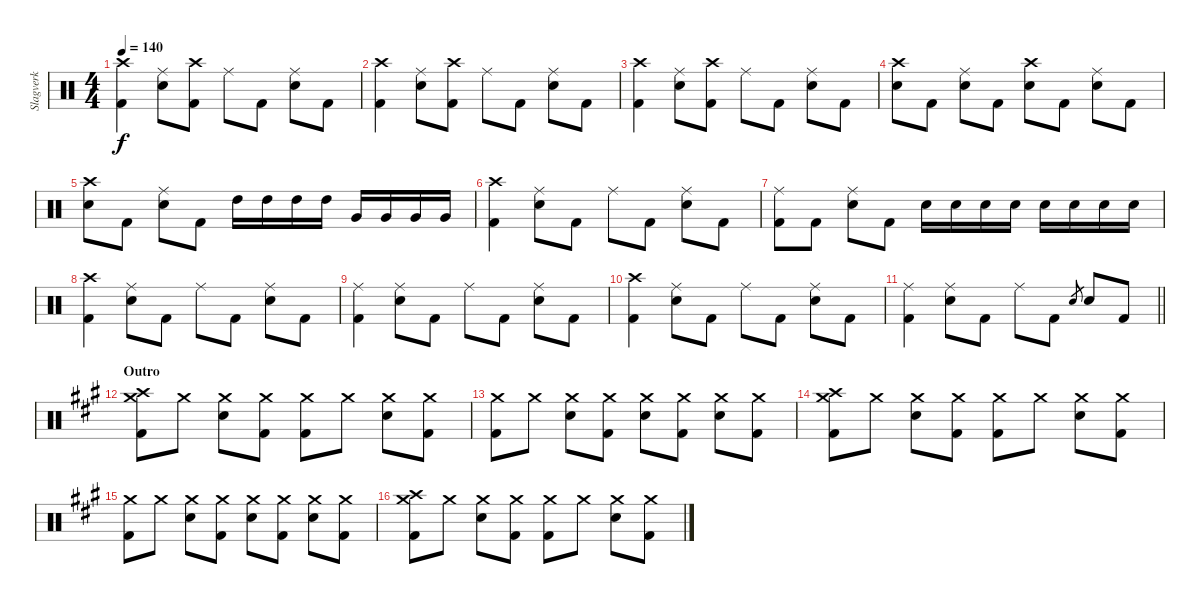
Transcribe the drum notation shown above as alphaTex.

\track ("Slagverk" "Slagverk") {instrument percussion}
\staff {score}
\articulation defaults
\ts (4 4)
\tempo 140
\clef neutral
\ks c
("Crash high (hit)" "Kick (hit) 2").4{dy f} ("Ride (middle)" "Electric Snare (hit)").8 ("Crash high (hit)" "Kick (hit) 2").8 "Ride (middle)".8 "Kick (hit) 2".8 ("Ride (middle)" "Electric Snare (hit)").8 "Kick (hit) 2".8 |
("Crash high (hit)" "Kick (hit) 2").4 ("Ride (middle)" "Electric Snare (hit)").8 ("Crash high (hit)" "Kick (hit) 2").8 "Ride (middle)".8 "Kick (hit) 2".8 ("Ride (middle)" "Electric Snare (hit)").8 "Kick (hit) 2".8 |
("Crash high (hit)" "Kick (hit) 2").4 ("Ride (middle)" "Electric Snare (hit)").8 ("Crash high (hit)" "Kick (hit) 2").8 "Ride (middle)".8 "Kick (hit) 2".8 ("Ride (middle)" "Electric Snare (hit)").8 "Kick (hit) 2".8 |
("Crash high (hit)" "Electric Snare (hit)").8 "Kick (hit) 2".8 ("Ride (middle)" "Electric Snare (hit)").8 "Kick (hit) 2".8 ("Crash high (hit)" "Electric Snare (hit)").8 "Kick (hit) 2".8 ("Ride (middle)" "Electric Snare (hit)").8 "Kick (hit) 2".8 |
("Crash high (hit)" "Electric Snare (hit)").8 "Kick (hit) 2".8 ("Ride (middle)" "Electric Snare (hit)").8 "Kick (hit) 2".8 "High Tom (hit)".16 "High Tom (hit)".16 "High Tom (hit)".16 "High Tom (hit)".16 "Very Low Tom (hit)".16 "Very Low Tom (hit)".16 "Very Low Tom (hit)".16 "Very Low Tom (hit)".16 |
("Crash high (hit)" "Kick (hit) 2").4 ("Ride (middle)" "Electric Snare (hit)").8 "Kick (hit) 2".8 "Ride (middle)".8 "Kick (hit) 2".8 ("Ride (middle)" "Electric Snare (hit)").8 "Kick (hit) 2".8 |
("Ride (middle)" "Kick (hit) 2").8 "Kick (hit) 2".8 ("Ride (middle)" "Electric Snare (hit)").8 "Kick (hit) 2".8 "Electric Snare (hit)".16 "Electric Snare (hit)".16 "Electric Snare (hit)".16 "Electric Snare (hit)".16 "Electric Snare (hit)".16 "Electric Snare (hit)".16 "Electric Snare (hit)".16 "Electric Snare (hit)".16 |
("Crash high (hit)" "Kick (hit) 2").4 ("Ride (middle)" "Electric Snare (hit)").8 "Kick (hit) 2".8 "Ride (middle)".8 "Kick (hit) 2".8 ("Ride (middle)" "Electric Snare (hit)").8 "Kick (hit) 2".8 |
("Ride (middle)" "Kick (hit) 2").4 ("Ride (middle)" "Electric Snare (hit)").8 "Kick (hit) 2".8 "Ride (middle)".8 "Kick (hit) 2".8 ("Ride (middle)" "Electric Snare (hit)").8 "Kick (hit) 2".8 |
("Crash high (hit)" "Kick (hit) 2").4 ("Ride (middle)" "Electric Snare (hit)").8 "Kick (hit) 2".8 "Ride (middle)".8 "Kick (hit) 2".8 ("Ride (middle)" "Electric Snare (hit)").8 "Kick (hit) 2".8 |
\barLineRight lightlight
("Ride (middle)" "Kick (hit) 2").4 ("Ride (middle)" "Electric Snare (hit)").8 "Kick (hit) 2".8 "Ride (middle)".8 "Kick (hit) 2".8 "Electric Snare (hit)".8{gr} "Electric Snare (hit)".8 "Kick (hit) 2".8 |
\section ("" "Outro")
\ks a
("Crash high (hit)" "Crash medium (hit)" "Kick (hit) 2").8 "Crash medium (hit)".8 ("Crash medium (hit)" "Electric Snare (hit)").8 ("Crash medium (hit)" "Kick (hit) 2").8 ("Crash medium (hit)" "Kick (hit) 2").8 "Crash medium (hit)".8 ("Crash medium (hit)" "Electric Snare (hit)").8 ("Crash medium (hit)" "Kick (hit) 2").8 |
("Crash medium (hit)" "Kick (hit) 2").8 "Crash medium (hit)".8 ("Crash medium (hit)" "Electric Snare (hit)").8 ("Crash medium (hit)" "Kick (hit) 2").8 ("Crash medium (hit)" "Electric Snare (hit)").8 ("Crash medium (hit)" "Kick (hit) 2").8 ("Crash medium (hit)" "Electric Snare (hit)").8 ("Crash medium (hit)" "Kick (hit) 2").8 |
("Crash high (hit)" "Crash medium (hit)" "Kick (hit) 2").8 "Crash medium (hit)".8 ("Crash medium (hit)" "Electric Snare (hit)").8 ("Crash medium (hit)" "Kick (hit) 2").8 ("Crash medium (hit)" "Kick (hit) 2").8 "Crash medium (hit)".8 ("Crash medium (hit)" "Electric Snare (hit)").8 ("Crash medium (hit)" "Kick (hit) 2").8 |
("Crash medium (hit)" "Kick (hit) 2").8 "Crash medium (hit)".8 ("Crash medium (hit)" "Electric Snare (hit)").8 ("Crash medium (hit)" "Kick (hit) 2").8 ("Crash medium (hit)" "Electric Snare (hit)").8 ("Crash medium (hit)" "Kick (hit) 2").8 ("Crash medium (hit)" "Electric Snare (hit)").8 ("Crash medium (hit)" "Kick (hit) 2").8 |
("Crash high (hit)" "Crash medium (hit)" "Kick (hit) 2").8 "Crash medium (hit)".8 ("Crash medium (hit)" "Electric Snare (hit)").8 ("Crash medium (hit)" "Kick (hit) 2").8 ("Crash medium (hit)" "Kick (hit) 2").8 "Crash medium (hit)".8 ("Crash medium (hit)" "Electric Snare (hit)").8 ("Crash medium (hit)" "Kick (hit) 2").8
